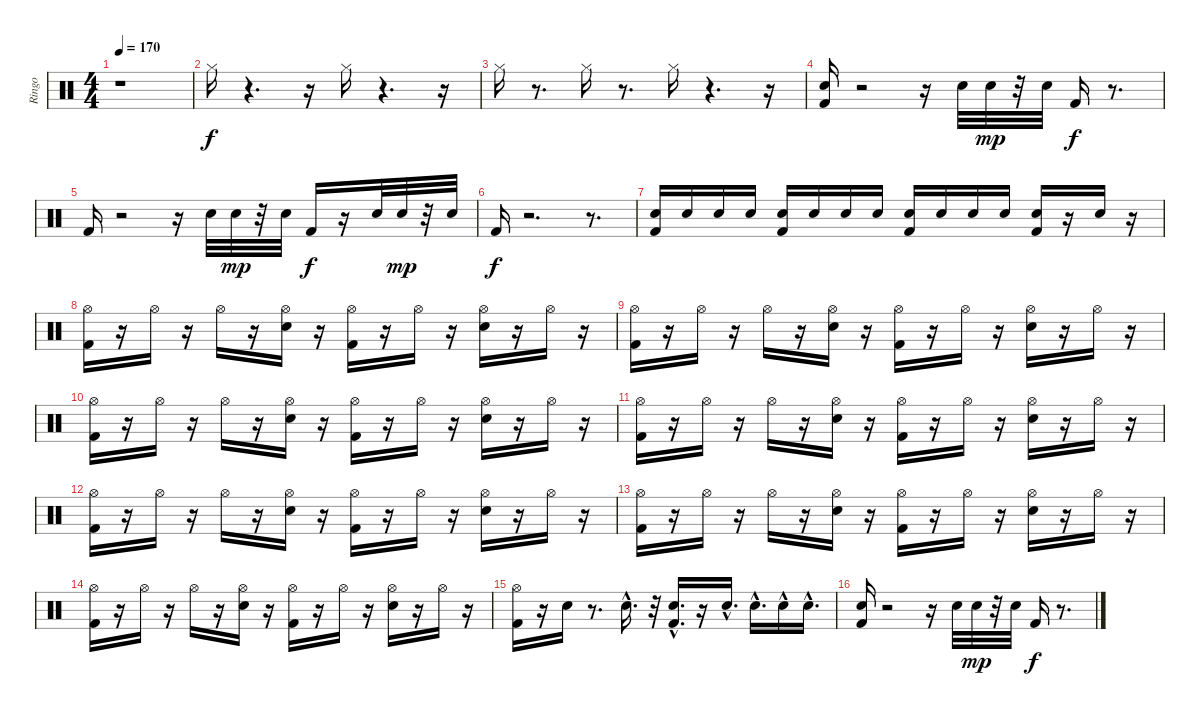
\track ("Ringo" "Ringo") {instrument percussion}
\staff {score}
\articulation defaults
\ts (4 4)
\tempo 170
\clef neutral
\ks c
r.1{dy f} |
"Hi-Hat (closed)".16 r.4{d} r.16 "Hi-Hat (closed)".16 r.4{d} r.16 |
"Hi-Hat (closed)".16 r.8{d} "Hi-Hat (closed)".16 r.8{d} "Hi-Hat (closed)".16 r.4{d} r.16 |
("Snare (hit) 2" "Kick (hit) 2").16 r.2 r.16 "Snare (hit) 2".32 "Snare (hit) 2".32{dy mp} r.32 "Snare (hit) 2".32 "Kick (hit) 2".16{dy f} r.8{d} |
"Kick (hit) 2".16 r.2 r.16 "Snare (hit) 2".32 "Snare (hit) 2".32{dy mp} r.32 "Snare (hit) 2".32 "Kick (hit) 2".16{dy f} r.16 "Snare (hit) 2".32 "Snare (hit) 2".32{dy mp} r.32 "Snare (hit) 2".32 |
"Kick (hit) 2".16{dy f} r.2{d} r.8{d} |
("Kick (hit) 2" "Snare (hit) 2").16 "Snare (hit) 2".16 "Snare (hit) 2".16 "Snare (hit) 2".16 ("Kick (hit) 2" "Snare (hit) 2").16 "Snare (hit) 2".16 "Snare (hit) 2".16 "Snare (hit) 2".16 ("Kick (hit) 2" "Snare (hit) 2").16 "Snare (hit) 2".16 "Snare (hit) 2".16 "Snare (hit) 2".16 ("Kick (hit) 2" "Snare (hit) 2").16 r.16 "Snare (hit) 2".16 r.16 |
("Hi-Hat (open)" "Kick (hit) 2").16 r.16 "Hi-Hat (open)".16 r.16 "Hi-Hat (open)".16 r.16 ("Hi-Hat (open)" "Snare (hit) 2").16 r.16 ("Hi-Hat (open)" "Kick (hit) 2").16 r.16 "Hi-Hat (open)".16 r.16 ("Hi-Hat (open)" "Snare (hit) 2").16 r.16 "Hi-Hat (open)".16 r.16 |
("Kick (hit) 2" "Hi-Hat (open)").16 r.16 "Hi-Hat (open)".16 r.16 "Hi-Hat (open)".16 r.16 ("Snare (hit) 2" "Hi-Hat (open)").16 r.16 ("Kick (hit) 2" "Hi-Hat (open)").16 r.16 "Hi-Hat (open)".16 r.16 ("Snare (hit) 2" "Hi-Hat (open)").16 r.16 "Hi-Hat (open)".16 r.16 |
("Kick (hit) 2" "Hi-Hat (open)").16 r.16 "Hi-Hat (open)".16 r.16 "Hi-Hat (open)".16 r.16 ("Snare (hit) 2" "Hi-Hat (open)").16 r.16 ("Kick (hit) 2" "Hi-Hat (open)").16 r.16 "Hi-Hat (open)".16 r.16 ("Snare (hit) 2" "Hi-Hat (open)").16 r.16 "Hi-Hat (open)".16 r.16 |
("Kick (hit) 2" "Hi-Hat (open)").16 r.16 "Hi-Hat (open)".16 r.16 "Hi-Hat (open)".16 r.16 ("Snare (hit) 2" "Hi-Hat (open)").16 r.16 ("Kick (hit) 2" "Hi-Hat (open)").16 r.16 "Hi-Hat (open)".16 r.16 ("Snare (hit) 2" "Hi-Hat (open)").16 r.16 "Hi-Hat (open)".16 r.16 |
("Kick (hit) 2" "Hi-Hat (open)").16 r.16 "Hi-Hat (open)".16 r.16 "Hi-Hat (open)".16 r.16 ("Snare (hit) 2" "Hi-Hat (open)").16 r.16 ("Kick (hit) 2" "Hi-Hat (open)").16 r.16 "Hi-Hat (open)".16 r.16 ("Snare (hit) 2" "Hi-Hat (open)").16 r.16 "Hi-Hat (open)".16 r.16 |
("Kick (hit) 2" "Hi-Hat (open)").16 r.16 "Hi-Hat (open)".16 r.16 "Hi-Hat (open)".16 r.16 ("Snare (hit) 2" "Hi-Hat (open)").16 r.16 ("Kick (hit) 2" "Hi-Hat (open)").16 r.16 "Hi-Hat (open)".16 r.16 ("Snare (hit) 2" "Hi-Hat (open)").16 r.16 "Hi-Hat (open)".16 r.16 |
("Kick (hit) 2" "Hi-Hat (open)").16 r.16 "Hi-Hat (open)".16 r.16 "Hi-Hat (open)".16 r.16 ("Snare (hit) 2" "Hi-Hat (open)").16 r.16 ("Kick (hit) 2" "Hi-Hat (open)").16 r.16 "Hi-Hat (open)".16 r.16 ("Snare (hit) 2" "Hi-Hat (open)").16 r.16 "Hi-Hat (open)".16 r.16 |
("Hi-Hat (open)" "Kick (hit) 2").16 r.16 "Snare (hit) 2".16 r.8{d} "Snare (hit) 2"{hac}.16{d} r.32 ("Kick (hit) 2" "Snare (hit) 2"{hac}).16{d} r.16 "Snare (hit) 2"{hac}.16{d} "Snare (hit) 2"{hac}.16{d} "Snare (hit) 2"{hac}.16 "Snare (hit) 2"{hac}.16{d} |
("Kick (hit) 2" "Snare (hit) 2").16 r.2 r.16 "Snare (hit) 2".32 "Snare (hit) 2".32{dy mp} r.32 "Snare (hit) 2".32 "Kick (hit) 2".16{dy f} r.8{d}
